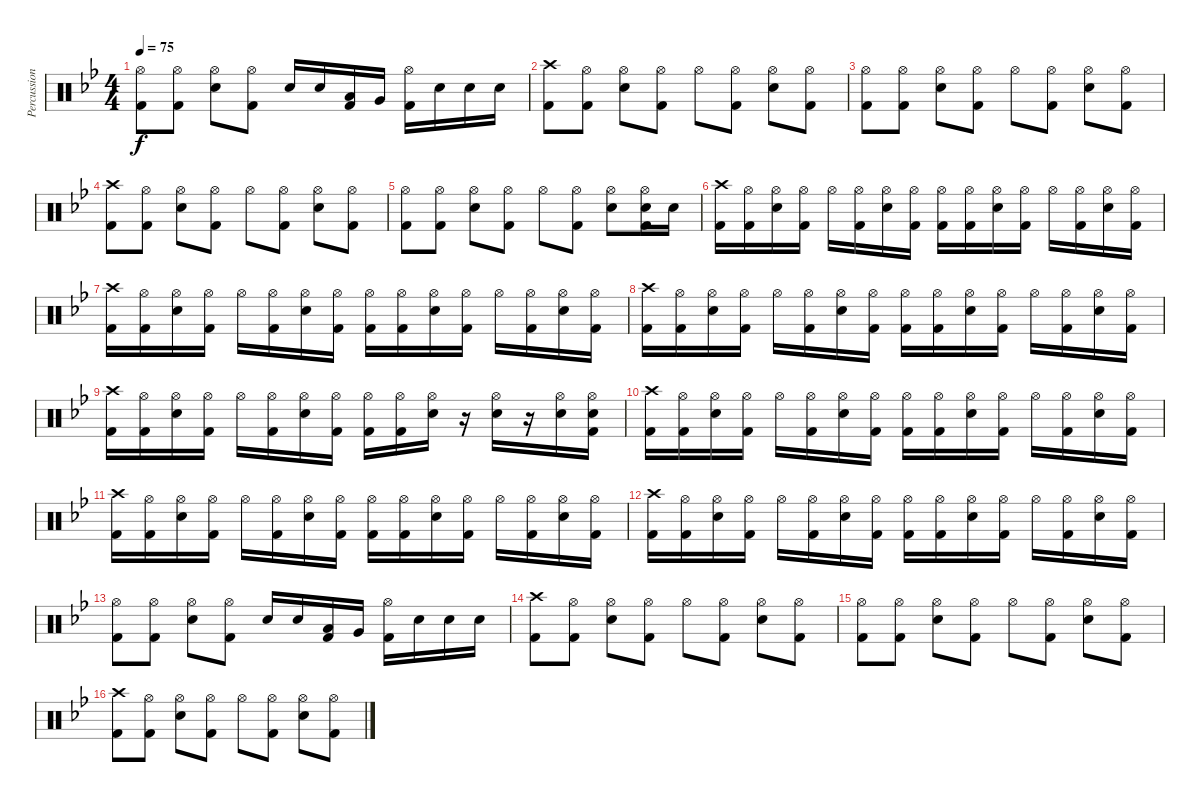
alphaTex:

\track ("Percussion" "Percussion") {instrument percussion}
\staff {score}
\articulation defaults
\ts (4 4)
\tempo 75
\clef neutral
\ks bb
("Hi-Hat (open)" "Kick (hit) 2").8{dy f} ("Hi-Hat (open)" "Kick (hit) 2").8 ("Hi-Hat (open)" "Electric Snare (hit)").8 ("Hi-Hat (open)" "Kick (hit) 2").8 "Electric Snare (hit)".16 "Electric Snare (hit)".16 ("Low Tom (hit)" "Kick (hit) 2").16 "Very Low Tom (hit)".16 ("Hi-Hat (open)" "Kick (hit) 2").16 "Electric Snare (hit)".16 "Electric Snare (hit)".16 "Electric Snare (hit)".16 |
("Crash high (hit)" "Kick (hit) 2").8 ("Hi-Hat (open)" "Kick (hit) 2").8 ("Hi-Hat (open)" "Electric Snare (hit)").8 ("Hi-Hat (open)" "Kick (hit) 2").8 "Hi-Hat (open)".8 ("Hi-Hat (open)" "Kick (hit) 2").8 ("Hi-Hat (open)" "Electric Snare (hit)").8 ("Hi-Hat (open)" "Kick (hit) 2").8 |
("Hi-Hat (open)" "Kick (hit) 2").8 ("Hi-Hat (open)" "Kick (hit) 2").8 ("Hi-Hat (open)" "Electric Snare (hit)").8 ("Hi-Hat (open)" "Kick (hit) 2").8 "Hi-Hat (open)".8 ("Hi-Hat (open)" "Kick (hit) 2").8 ("Hi-Hat (open)" "Electric Snare (hit)").8 ("Hi-Hat (open)" "Kick (hit) 2").8 |
("Crash high (hit)" "Kick (hit) 2").8 ("Hi-Hat (open)" "Kick (hit) 2").8 ("Hi-Hat (open)" "Electric Snare (hit)").8 ("Hi-Hat (open)" "Kick (hit) 2").8 "Hi-Hat (open)".8 ("Hi-Hat (open)" "Kick (hit) 2").8 ("Hi-Hat (open)" "Electric Snare (hit)").8 ("Hi-Hat (open)" "Kick (hit) 2").8 |
("Hi-Hat (open)" "Kick (hit) 2").8 ("Hi-Hat (open)" "Kick (hit) 2").8 ("Hi-Hat (open)" "Electric Snare (hit)").8 ("Hi-Hat (open)" "Kick (hit) 2").8 "Hi-Hat (open)".8 ("Hi-Hat (open)" "Kick (hit) 2").8 ("Hi-Hat (open)" "Electric Snare (hit)").8 ("Hi-Hat (open)" "Electric Snare (hit)" "Kick (hit) 2").16 "Electric Snare (hit)".16 |
("Crash high (hit)" "Kick (hit) 2").16 ("Hi-Hat (open)" "Kick (hit) 2").16 ("Hi-Hat (open)" "Electric Snare (hit)").16 ("Hi-Hat (open)" "Kick (hit) 2").16 "Hi-Hat (open)".16 ("Hi-Hat (open)" "Kick (hit) 2").16 ("Hi-Hat (open)" "Electric Snare (hit)").16 ("Hi-Hat (open)" "Kick (hit) 2").16 ("Hi-Hat (open)" "Kick (hit) 2").16 ("Hi-Hat (open)" "Kick (hit) 2").16 ("Hi-Hat (open)" "Electric Snare (hit)").16 ("Hi-Hat (open)" "Kick (hit) 2").16 "Hi-Hat (open)".16 ("Hi-Hat (open)" "Kick (hit) 2").16 ("Hi-Hat (open)" "Electric Snare (hit)").16 ("Hi-Hat (open)" "Kick (hit) 2").16 |
("Crash high (hit)" "Kick (hit) 2").16 ("Hi-Hat (open)" "Kick (hit) 2").16 ("Hi-Hat (open)" "Electric Snare (hit)").16 ("Hi-Hat (open)" "Kick (hit) 2").16 "Hi-Hat (open)".16 ("Hi-Hat (open)" "Kick (hit) 2").16 ("Hi-Hat (open)" "Electric Snare (hit)").16 ("Hi-Hat (open)" "Kick (hit) 2").16 ("Hi-Hat (open)" "Kick (hit) 2").16 ("Hi-Hat (open)" "Kick (hit) 2").16 ("Hi-Hat (open)" "Electric Snare (hit)").16 ("Hi-Hat (open)" "Kick (hit) 2").16 "Hi-Hat (open)".16 ("Hi-Hat (open)" "Kick (hit) 2").16 ("Hi-Hat (open)" "Electric Snare (hit)").16 ("Hi-Hat (open)" "Kick (hit) 2").16 |
("Crash high (hit)" "Kick (hit) 2").16 ("Hi-Hat (open)" "Kick (hit) 2").16 ("Hi-Hat (open)" "Electric Snare (hit)").16 ("Hi-Hat (open)" "Kick (hit) 2").16 "Hi-Hat (open)".16 ("Hi-Hat (open)" "Kick (hit) 2").16 ("Hi-Hat (open)" "Electric Snare (hit)").16 ("Hi-Hat (open)" "Kick (hit) 2").16 ("Hi-Hat (open)" "Kick (hit) 2").16 ("Hi-Hat (open)" "Kick (hit) 2").16 ("Hi-Hat (open)" "Electric Snare (hit)").16 ("Hi-Hat (open)" "Kick (hit) 2").16 "Hi-Hat (open)".16 ("Hi-Hat (open)" "Kick (hit) 2").16 ("Hi-Hat (open)" "Electric Snare (hit)").16 ("Hi-Hat (open)" "Kick (hit) 2").16 |
("Crash high (hit)" "Kick (hit) 2").16 ("Hi-Hat (open)" "Kick (hit) 2").16 ("Hi-Hat (open)" "Electric Snare (hit)").16 ("Hi-Hat (open)" "Kick (hit) 2").16 "Hi-Hat (open)".16 ("Hi-Hat (open)" "Kick (hit) 2").16 ("Hi-Hat (open)" "Electric Snare (hit)").16 ("Hi-Hat (open)" "Kick (hit) 2").16 ("Hi-Hat (open)" "Kick (hit) 2").16 ("Hi-Hat (open)" "Kick (hit) 2").16 ("Hi-Hat (open)" "Electric Snare (hit)").16 r.16 ("Hi-Hat (open)" "Electric Snare (hit)").16 r.16 ("Hi-Hat (open)" "Electric Snare (hit)").16 ("Hi-Hat (open)" "Electric Snare (hit)" "Kick (hit) 2").16 |
("Crash high (hit)" "Kick (hit) 2").16 ("Hi-Hat (open)" "Kick (hit) 2").16 ("Hi-Hat (open)" "Electric Snare (hit)").16 ("Hi-Hat (open)" "Kick (hit) 2").16 "Hi-Hat (open)".16 ("Hi-Hat (open)" "Kick (hit) 2").16 ("Hi-Hat (open)" "Electric Snare (hit)").16 ("Hi-Hat (open)" "Kick (hit) 2").16 ("Hi-Hat (open)" "Kick (hit) 2").16 ("Hi-Hat (open)" "Kick (hit) 2").16 ("Hi-Hat (open)" "Electric Snare (hit)").16 ("Hi-Hat (open)" "Kick (hit) 2").16 "Hi-Hat (open)".16 ("Hi-Hat (open)" "Kick (hit) 2").16 ("Hi-Hat (open)" "Electric Snare (hit)").16 ("Hi-Hat (open)" "Kick (hit) 2").16 |
("Crash high (hit)" "Kick (hit) 2").16 ("Hi-Hat (open)" "Kick (hit) 2").16 ("Hi-Hat (open)" "Electric Snare (hit)").16 ("Hi-Hat (open)" "Kick (hit) 2").16 "Hi-Hat (open)".16 ("Hi-Hat (open)" "Kick (hit) 2").16 ("Hi-Hat (open)" "Electric Snare (hit)").16 ("Hi-Hat (open)" "Kick (hit) 2").16 ("Hi-Hat (open)" "Kick (hit) 2").16 ("Hi-Hat (open)" "Kick (hit) 2").16 ("Hi-Hat (open)" "Electric Snare (hit)").16 ("Hi-Hat (open)" "Kick (hit) 2").16 "Hi-Hat (open)".16 ("Hi-Hat (open)" "Kick (hit) 2").16 ("Hi-Hat (open)" "Electric Snare (hit)").16 ("Hi-Hat (open)" "Kick (hit) 2").16 |
("Crash high (hit)" "Kick (hit) 2").16 ("Hi-Hat (open)" "Kick (hit) 2").16 ("Hi-Hat (open)" "Electric Snare (hit)").16 ("Hi-Hat (open)" "Kick (hit) 2").16 "Hi-Hat (open)".16 ("Hi-Hat (open)" "Kick (hit) 2").16 ("Hi-Hat (open)" "Electric Snare (hit)").16 ("Hi-Hat (open)" "Kick (hit) 2").16 ("Hi-Hat (open)" "Kick (hit) 2").16 ("Hi-Hat (open)" "Kick (hit) 2").16 ("Hi-Hat (open)" "Electric Snare (hit)").16 ("Hi-Hat (open)" "Kick (hit) 2").16 "Hi-Hat (open)".16 ("Hi-Hat (open)" "Kick (hit) 2").16 ("Hi-Hat (open)" "Electric Snare (hit)").16 ("Hi-Hat (open)" "Kick (hit) 2").16 |
("Hi-Hat (open)" "Kick (hit) 2").8 ("Hi-Hat (open)" "Kick (hit) 2").8 ("Hi-Hat (open)" "Electric Snare (hit)").8 ("Hi-Hat (open)" "Kick (hit) 2").8 "Electric Snare (hit)".16 "Electric Snare (hit)".16 ("Low Tom (hit)" "Kick (hit) 2").16 "Very Low Tom (hit)".16 ("Hi-Hat (open)" "Kick (hit) 2").16 "Electric Snare (hit)".16 "Electric Snare (hit)".16 "Electric Snare (hit)".16 |
("Crash high (hit)" "Kick (hit) 2").8 ("Hi-Hat (open)" "Kick (hit) 2").8 ("Hi-Hat (open)" "Electric Snare (hit)").8 ("Hi-Hat (open)" "Kick (hit) 2").8 "Hi-Hat (open)".8 ("Hi-Hat (open)" "Kick (hit) 2").8 ("Hi-Hat (open)" "Electric Snare (hit)").8 ("Hi-Hat (open)" "Kick (hit) 2").8 |
("Hi-Hat (open)" "Kick (hit) 2").8 ("Hi-Hat (open)" "Kick (hit) 2").8 ("Hi-Hat (open)" "Electric Snare (hit)").8 ("Hi-Hat (open)" "Kick (hit) 2").8 "Hi-Hat (open)".8 ("Hi-Hat (open)" "Kick (hit) 2").8 ("Hi-Hat (open)" "Electric Snare (hit)").8 ("Hi-Hat (open)" "Kick (hit) 2").8 |
("Crash high (hit)" "Kick (hit) 2").8 ("Hi-Hat (open)" "Kick (hit) 2").8 ("Hi-Hat (open)" "Electric Snare (hit)").8 ("Hi-Hat (open)" "Kick (hit) 2").8 "Hi-Hat (open)".8 ("Hi-Hat (open)" "Kick (hit) 2").8 ("Hi-Hat (open)" "Electric Snare (hit)").8 ("Hi-Hat (open)" "Kick (hit) 2").8
